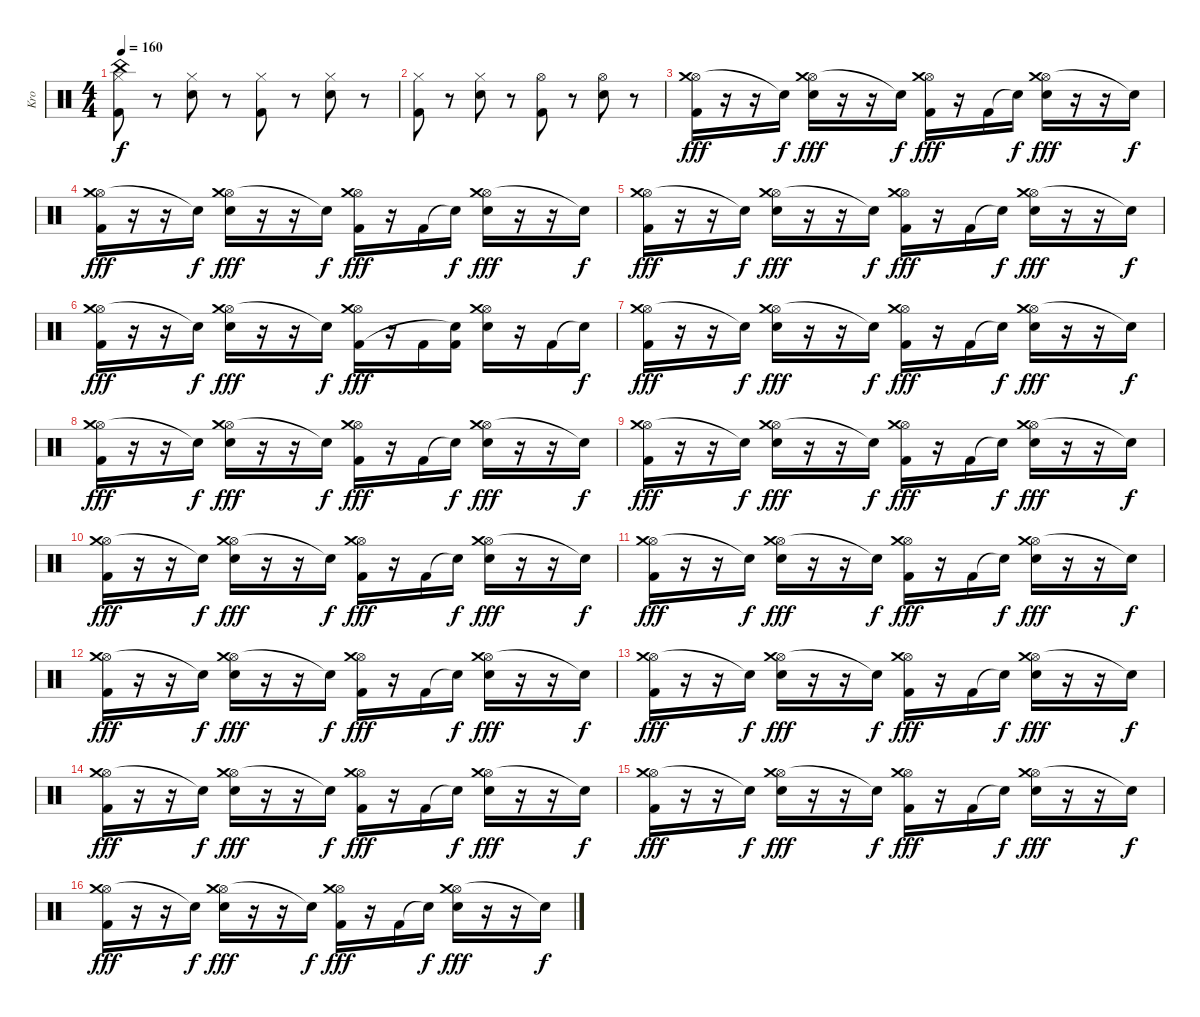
\track ("Kro" "Kro") {instrument percussion}
\staff {score}
\articulation defaults
\ts (4 4)
\tempo 160
\clef neutral
\ks c
("Hi-Hat (closed)" "Kick (hit) 2" "China (hit)").8{dy f} r.8 ("Hi-Hat (closed)" "Snare (hit) 2").8 r.8 ("Hi-Hat (closed)" "Kick (hit) 2").8 r.8 ("Hi-Hat (closed)" "Snare (hit) 2").8 r.8 |
("Hi-Hat (closed)" "Kick (hit) 2").8 r.8 ("Hi-Hat (closed)" "Snare (hit) 2").8 r.8 ("Hi-Hat (open)" "Kick (hit) 2").8 r.8 ("Hi-Hat (open)" "Snare (hit) 2").8 r.8 |
("Hi-Hat (open)" "Kick (hit) 2" "Crash medium (hit)").16{dy fff} r.16 r.16 "Snare (hit)"{t}.16{dy f} ("Hi-Hat (open)" "Snare (hit) 2" "Crash medium (hit)").16{dy fff} r.16 r.16 "Snare (hit)"{t}.16{dy f} ("Hi-Hat (open)" "Kick (hit) 2" "Crash medium (hit)").16{dy fff} r.16 "Kick (hit) 2".16 "Snare (hit)"{t}.16{dy f} ("Hi-Hat (open)" "Snare (hit) 2" "Crash medium (hit)").16{dy fff} r.16 r.16 "Snare (hit)"{t}.16{dy f} |
("Hi-Hat (open)" "Kick (hit) 2" "Crash medium (hit)").16{dy fff} r.16 r.16 "Snare (hit)"{t}.16{dy f} ("Hi-Hat (open)" "Snare (hit) 2" "Crash medium (hit)").16{dy fff} r.16 r.16 "Snare (hit)"{t}.16{dy f} ("Hi-Hat (open)" "Kick (hit) 2" "Crash medium (hit)").16{dy fff} r.16 "Kick (hit) 2".16 "Snare (hit)"{t}.16{dy f} ("Hi-Hat (open)" "Snare (hit) 2" "Crash medium (hit)").16{dy fff} r.16 r.16 "Snare (hit)"{t}.16{dy f} |
("Hi-Hat (open)" "Kick (hit) 2" "Crash medium (hit)").16{dy fff} r.16 r.16 "Snare (hit)"{t}.16{dy f} ("Hi-Hat (open)" "Snare (hit) 2" "Crash medium (hit)").16{dy fff} r.16 r.16 "Snare (hit)"{t}.16{dy f} ("Hi-Hat (open)" "Kick (hit) 2" "Crash medium (hit)").16{dy fff} r.16 "Kick (hit) 2".16 "Snare (hit)"{t}.16{dy f} ("Hi-Hat (open)" "Snare (hit) 2" "Crash medium (hit)").16{dy fff} r.16 r.16 "Snare (hit)"{t}.16{dy f} |
("Hi-Hat (open)" "Kick (hit) 2" "Crash medium (hit)").16{dy fff} r.16 r.16 "Snare (hit)"{t}.16{dy f} ("Hi-Hat (open)" "Snare (hit) 2" "Crash medium (hit)").16{dy fff} r.16 r.16 "Snare (hit)"{t}.16{dy f} ("Hi-Hat (open)" "Kick (hit) 2" "Crash medium (hit)").16{dy fff} r.16 "Kick (hit) 2".16 ("Kick (hit) 2" "Snare (hit)"{t}).16 ("Hi-Hat (open)" "Snare (hit) 2" "Crash medium (hit)").16 r.16 "Kick (hit) 2".16 "Snare (hit)"{t}.16{dy f} |
("Hi-Hat (open)" "Kick (hit) 2" "Crash medium (hit)").16{dy fff} r.16 r.16 "Snare (hit)"{t}.16{dy f} ("Hi-Hat (open)" "Snare (hit) 2" "Crash medium (hit)").16{dy fff} r.16 r.16 "Snare (hit)"{t}.16{dy f} ("Hi-Hat (open)" "Kick (hit) 2" "Crash medium (hit)").16{dy fff} r.16 "Kick (hit) 2".16 "Snare (hit)"{t}.16{dy f} ("Hi-Hat (open)" "Snare (hit) 2" "Crash medium (hit)").16{dy fff} r.16 r.16 "Snare (hit)"{t}.16{dy f} |
("Hi-Hat (open)" "Kick (hit) 2" "Crash medium (hit)").16{dy fff} r.16 r.16 "Snare (hit)"{t}.16{dy f} ("Hi-Hat (open)" "Snare (hit) 2" "Crash medium (hit)").16{dy fff} r.16 r.16 "Snare (hit)"{t}.16{dy f} ("Hi-Hat (open)" "Kick (hit) 2" "Crash medium (hit)").16{dy fff} r.16 "Kick (hit) 2".16 "Snare (hit)"{t}.16{dy f} ("Hi-Hat (open)" "Snare (hit) 2" "Crash medium (hit)").16{dy fff} r.16 r.16 "Snare (hit)"{t}.16{dy f} |
("Hi-Hat (open)" "Kick (hit) 2" "Crash medium (hit)").16{dy fff} r.16 r.16 "Snare (hit)"{t}.16{dy f} ("Hi-Hat (open)" "Snare (hit) 2" "Crash medium (hit)").16{dy fff} r.16 r.16 "Snare (hit)"{t}.16{dy f} ("Hi-Hat (open)" "Kick (hit) 2" "Crash medium (hit)").16{dy fff} r.16 "Kick (hit) 2".16 "Snare (hit)"{t}.16{dy f} ("Hi-Hat (open)" "Snare (hit) 2" "Crash medium (hit)").16{dy fff} r.16 r.16 "Snare (hit)"{t}.16{dy f} |
("Hi-Hat (open)" "Kick (hit) 2" "Crash medium (hit)").16{dy fff} r.16 r.16 "Snare (hit)"{t}.16{dy f} ("Hi-Hat (open)" "Snare (hit) 2" "Crash medium (hit)").16{dy fff} r.16 r.16 "Snare (hit)"{t}.16{dy f} ("Hi-Hat (open)" "Kick (hit) 2" "Crash medium (hit)").16{dy fff} r.16 "Kick (hit) 2".16 "Snare (hit)"{t}.16{dy f} ("Hi-Hat (open)" "Snare (hit) 2" "Crash medium (hit)").16{dy fff} r.16 r.16 "Snare (hit)"{t}.16{dy f} |
("Hi-Hat (open)" "Kick (hit) 2" "Crash medium (hit)").16{dy fff} r.16 r.16 "Snare (hit)"{t}.16{dy f} ("Hi-Hat (open)" "Snare (hit) 2" "Crash medium (hit)").16{dy fff} r.16 r.16 "Snare (hit)"{t}.16{dy f} ("Hi-Hat (open)" "Kick (hit) 2" "Crash medium (hit)").16{dy fff} r.16 "Kick (hit) 2".16 "Snare (hit)"{t}.16{dy f} ("Hi-Hat (open)" "Snare (hit) 2" "Crash medium (hit)").16{dy fff} r.16 r.16 "Snare (hit)"{t}.16{dy f} |
("Hi-Hat (open)" "Kick (hit) 2" "Crash medium (hit)").16{dy fff} r.16 r.16 "Snare (hit)"{t}.16{dy f} ("Hi-Hat (open)" "Snare (hit) 2" "Crash medium (hit)").16{dy fff} r.16 r.16 "Snare (hit)"{t}.16{dy f} ("Hi-Hat (open)" "Kick (hit) 2" "Crash medium (hit)").16{dy fff} r.16 "Kick (hit) 2".16 "Snare (hit)"{t}.16{dy f} ("Hi-Hat (open)" "Snare (hit) 2" "Crash medium (hit)").16{dy fff} r.16 r.16 "Snare (hit)"{t}.16{dy f} |
("Hi-Hat (open)" "Kick (hit) 2" "Crash medium (hit)").16{dy fff} r.16 r.16 "Snare (hit)"{t}.16{dy f} ("Hi-Hat (open)" "Snare (hit) 2" "Crash medium (hit)").16{dy fff} r.16 r.16 "Snare (hit)"{t}.16{dy f} ("Hi-Hat (open)" "Kick (hit) 2" "Crash medium (hit)").16{dy fff} r.16 "Kick (hit) 2".16 "Snare (hit)"{t}.16{dy f} ("Hi-Hat (open)" "Snare (hit) 2" "Crash medium (hit)").16{dy fff} r.16 r.16 "Snare (hit)"{t}.16{dy f} |
("Hi-Hat (open)" "Kick (hit) 2" "Crash medium (hit)").16{dy fff} r.16 r.16 "Snare (hit)"{t}.16{dy f} ("Hi-Hat (open)" "Snare (hit) 2" "Crash medium (hit)").16{dy fff} r.16 r.16 "Snare (hit)"{t}.16{dy f} ("Hi-Hat (open)" "Kick (hit) 2" "Crash medium (hit)").16{dy fff} r.16 "Kick (hit) 2".16 "Snare (hit)"{t}.16{dy f} ("Hi-Hat (open)" "Snare (hit) 2" "Crash medium (hit)").16{dy fff} r.16 r.16 "Snare (hit)"{t}.16{dy f} |
("Hi-Hat (open)" "Kick (hit) 2" "Crash medium (hit)").16{dy fff} r.16 r.16 "Snare (hit)"{t}.16{dy f} ("Hi-Hat (open)" "Snare (hit) 2" "Crash medium (hit)").16{dy fff} r.16 r.16 "Snare (hit)"{t}.16{dy f} ("Hi-Hat (open)" "Kick (hit) 2" "Crash medium (hit)").16{dy fff} r.16 "Kick (hit) 2".16 "Snare (hit)"{t}.16{dy f} ("Hi-Hat (open)" "Snare (hit) 2" "Crash medium (hit)").16{dy fff} r.16 r.16 "Snare (hit)"{t}.16{dy f} |
("Hi-Hat (open)" "Kick (hit) 2" "Crash medium (hit)").16{dy fff} r.16 r.16 "Snare (hit)"{t}.16{dy f} ("Hi-Hat (open)" "Snare (hit) 2" "Crash medium (hit)").16{dy fff} r.16 r.16 "Snare (hit)"{t}.16{dy f} ("Hi-Hat (open)" "Kick (hit) 2" "Crash medium (hit)").16{dy fff} r.16 "Kick (hit) 2".16 "Snare (hit)"{t}.16{dy f} ("Hi-Hat (open)" "Snare (hit) 2" "Crash medium (hit)").16{dy fff} r.16 r.16 "Snare (hit)"{t}.16{dy f}
